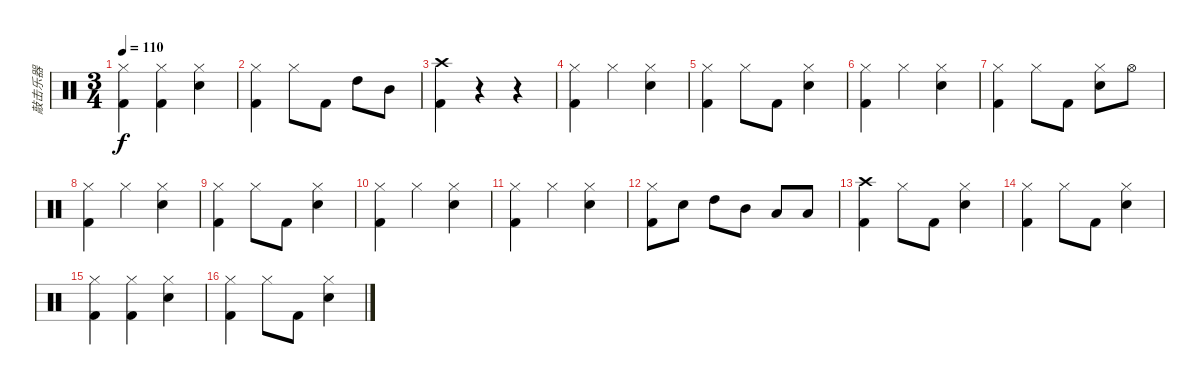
\track ("敲击乐器" "敲击乐器") {instrument percussion}
\staff {score}
\articulation defaults
\ts (3 4)
\tempo 110
\clef neutral
\ks c
("Hi-Hat (closed)" "Kick (hit) 2").4{dy f} ("Hi-Hat (closed)" "Kick (hit) 2").4 ("Hi-Hat (closed)" "Electric Snare (hit)").4 |
("Hi-Hat (closed)" "Kick (hit) 2").4 "Hi-Hat (closed)".8 "Kick (hit) 2".8 "High Tom (hit)".8 "Mid Tom (hit)".8 |
("Crash high (hit)" "Kick (hit) 2").4 r.4 r.4 |
("Hi-Hat (closed)" "Kick (hit) 2").4 "Hi-Hat (closed)".4 ("Hi-Hat (closed)" "Electric Snare (hit)").4 |
("Hi-Hat (closed)" "Kick (hit) 2").4 "Hi-Hat (closed)".8 "Kick (hit) 2".8 ("Hi-Hat (closed)" "Electric Snare (hit)").4 |
("Hi-Hat (closed)" "Kick (hit) 2").4 "Hi-Hat (closed)".4 ("Hi-Hat (closed)" "Electric Snare (hit)").4 |
("Hi-Hat (closed)" "Kick (hit) 2").4 "Hi-Hat (closed)".8 "Kick (hit) 2".8 ("Hi-Hat (closed)" "Electric Snare (hit)").8 "Hi-Hat (open)".8 |
("Hi-Hat (closed)" "Kick (hit) 2").4 "Hi-Hat (closed)".4 ("Hi-Hat (closed)" "Electric Snare (hit)").4 |
("Hi-Hat (closed)" "Kick (hit) 2").4 "Hi-Hat (closed)".8 "Kick (hit) 2".8 ("Hi-Hat (closed)" "Electric Snare (hit)").4 |
("Hi-Hat (closed)" "Kick (hit) 2").4 "Hi-Hat (closed)".4 ("Hi-Hat (closed)" "Electric Snare (hit)").4 |
("Hi-Hat (closed)" "Kick (hit) 2").4 "Hi-Hat (closed)".4 ("Hi-Hat (closed)" "Electric Snare (hit)").4 |
("Hi-Hat (closed)" "Kick (hit) 2").8 "Electric Snare (hit)".8 "High Tom (hit)".8 "Mid Tom (hit)".8 "Low Tom (hit)".8 "Low Tom (hit)".8 |
("Crash high (hit)" "Kick (hit) 2").4 "Hi-Hat (closed)".8 "Kick (hit) 2".8 ("Hi-Hat (closed)" "Electric Snare (hit)").4 |
("Hi-Hat (closed)" "Kick (hit) 2").4 "Hi-Hat (closed)".8 "Kick (hit) 2".8 ("Hi-Hat (closed)" "Electric Snare (hit)").4 |
("Hi-Hat (closed)" "Kick (hit) 2").4 ("Hi-Hat (closed)" "Kick (hit) 2").4 ("Hi-Hat (closed)" "Electric Snare (hit)").4 |
("Hi-Hat (closed)" "Kick (hit) 2").4 "Hi-Hat (closed)".8 "Kick (hit) 2".8 ("Hi-Hat (closed)" "Electric Snare (hit)").4
